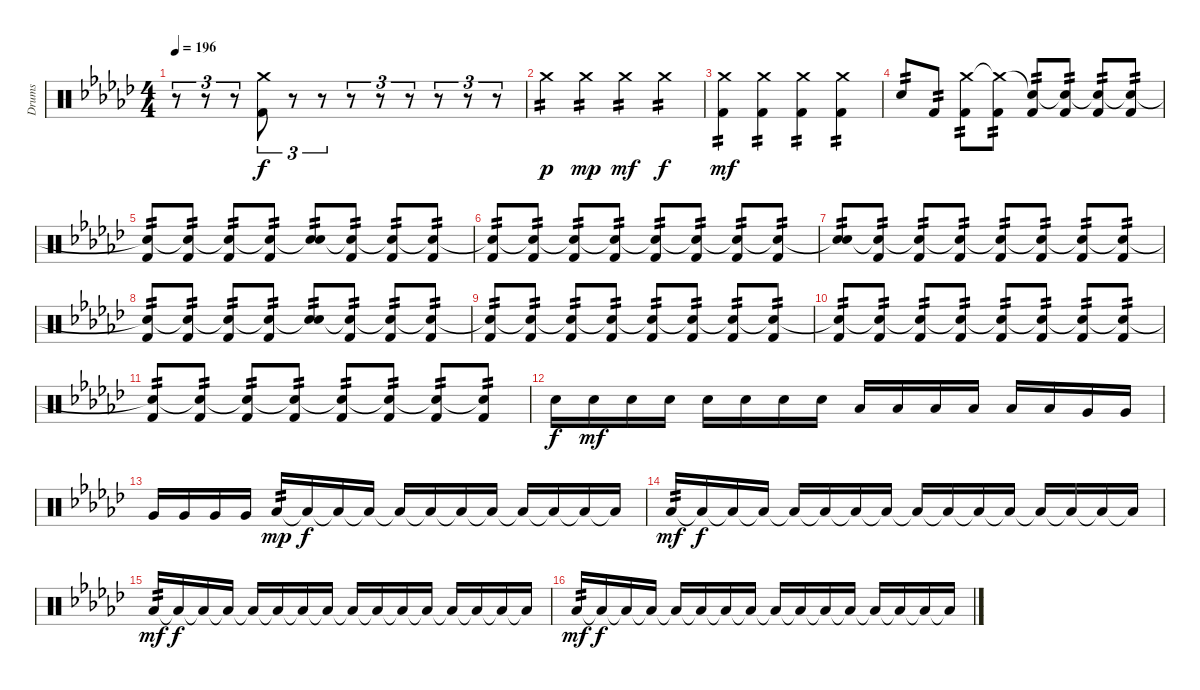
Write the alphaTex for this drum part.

\track ("Drums" "Drums") {instrument percussion}
\staff {score}
\articulation defaults
\ts (4 4)
\tempo 196
\clef neutral
\ks gb
r.8{tu (3 2) dy f} r.8{tu (3 2)} r.8{tu (3 2)} ("Crash medium (hit)" "Kick (hit) 2").8{tu (3 2)} r.8{tu (3 2)} r.8{tu (3 2)} r.8{tu (3 2)} r.8{tu (3 2)} r.8{tu (3 2)} r.8{tu (3 2)} r.8{tu (3 2)} r.8{tu (3 2)} |
"Crash medium (hit)".4{tp 2 dy p} "Crash medium (hit)".4{tp 2 dy mp} "Crash medium (hit)".4{tp 2 dy mf} "Crash medium (hit)".4{tp 2 dy f} |
("Crash medium (hit)" "Kick (hit) 2").4{tp 2 dy mf} ("Crash medium (hit)" "Kick (hit) 2").4{tp 2} ("Crash medium (hit)" "Kick (hit) 2").4{tp 2} ("Crash medium (hit)" "Kick (hit) 2").4{tp 2} |
"Snare (hit) 2".8{tp 2} "Kick (hit) 2".8{tp 2} ("Crash medium (hit)" "Kick (hit) 2").8{tp 2} ("Crash medium (hit)"{t} "Kick (hit) 2").8{tp 2} ("Snare (hit)"{t} "Kick (hit) 2").8{tp 2} ("Snare (hit)"{t} "Kick (hit) 2").8{tp 2} ("Snare (hit)"{t} "Kick (hit) 2").8{tp 2} ("Snare (hit)"{t} "Kick (hit) 2").8{tp 2} |
("Snare (hit)"{t} "Kick (hit) 2").8{tp 2} ("Snare (hit)"{t} "Kick (hit) 2").8{tp 2} ("Snare (hit)"{t} "Kick (hit) 2").8{tp 2} ("Snare (hit)"{t} "Kick (hit) 2").8{tp 2} ("Snare (hit)"{t} "Snare (hit) 2").8{tp 2} ("Snare (hit)"{t} "Kick (hit) 2").8{tp 2} ("Snare (hit)"{t} "Kick (hit) 2").8{tp 2} ("Snare (hit)"{t} "Kick (hit) 2").8{tp 2} |
("Snare (hit)"{t} "Kick (hit) 2").8{tp 2} ("Snare (hit)"{t} "Kick (hit) 2").8{tp 2} ("Snare (hit)"{t} "Kick (hit) 2").8{tp 2} ("Snare (hit)"{t} "Kick (hit) 2").8{tp 2} ("Snare (hit)"{t} "Kick (hit) 2").8{tp 2} ("Snare (hit)"{t} "Kick (hit) 2").8{tp 2} ("Snare (hit)"{t} "Kick (hit) 2").8{tp 2} ("Snare (hit)"{t} "Kick (hit) 2").8{tp 2} |
("Snare (hit)"{t} "Snare (hit) 2").8{tp 2} ("Snare (hit)"{t} "Kick (hit) 2").8{tp 2} ("Snare (hit)"{t} "Kick (hit) 2").8{tp 2} ("Snare (hit)"{t} "Kick (hit) 2").8{tp 2} ("Snare (hit)"{t} "Kick (hit) 2").8{tp 2} ("Snare (hit)"{t} "Kick (hit) 2").8{tp 2} ("Snare (hit)"{t} "Kick (hit) 2").8{tp 2} ("Snare (hit)"{t} "Kick (hit) 2").8{tp 2} |
("Snare (hit)"{t} "Kick (hit) 2").8{tp 2} ("Snare (hit)"{t} "Kick (hit) 2").8{tp 2} ("Snare (hit)"{t} "Kick (hit) 2").8{tp 2} ("Snare (hit)"{t} "Kick (hit) 2").8{tp 2} ("Snare (hit)"{t} "Snare (hit) 2").8{tp 2} ("Snare (hit)"{t} "Kick (hit) 2").8{tp 2} ("Snare (hit)"{t} "Kick (hit) 2").8{tp 2} ("Snare (hit)"{t} "Kick (hit) 2").8{tp 2} |
("Snare (hit)"{t} "Kick (hit) 2").8{tp 2} ("Snare (hit)"{t} "Kick (hit) 2").8{tp 2} ("Snare (hit)"{t} "Kick (hit) 2").8{tp 2} ("Snare (hit)"{t} "Kick (hit) 2").8{tp 2} ("Snare (hit)"{t} "Kick (hit) 2").8{tp 2} ("Snare (hit)"{t} "Kick (hit) 2").8{tp 2} ("Snare (hit)"{t} "Kick (hit) 2").8{tp 2} ("Snare (hit)"{t} "Kick (hit) 2").8{tp 2} |
("Snare (hit)"{t} "Kick (hit) 2").8{tp 2} ("Snare (hit)"{t} "Kick (hit) 2").8{tp 2} ("Snare (hit)"{t} "Kick (hit) 2").8{tp 2} ("Snare (hit)"{t} "Kick (hit) 2").8{tp 2} ("Snare (hit)"{t} "Kick (hit) 2").8{tp 2} ("Snare (hit)"{t} "Kick (hit) 2").8{tp 2} ("Snare (hit)"{t} "Kick (hit) 2").8{tp 2} ("Snare (hit)"{t} "Kick (hit) 2").8{tp 2} |
("Snare (hit)"{t} "Kick (hit) 2").8{tp 2} ("Snare (hit)"{t} "Kick (hit) 2").8{tp 2} ("Snare (hit)"{t} "Kick (hit) 2").8{tp 2} ("Snare (hit)"{t} "Kick (hit) 2").8{tp 2} ("Snare (hit)"{t} "Kick (hit) 2").8{tp 2} ("Snare (hit)"{t} "Kick (hit) 2").8{tp 2} ("Snare (hit)"{t} "Kick (hit) 2").8{tp 2} ("Snare (hit)"{t} "Kick (hit) 2").8{tp 2} |
"Snare (hit) 2".16{dy f} "Snare (hit) 2".16{dy mf} "Snare (hit) 2".16 "Snare (hit) 2".16 "Snare (hit) 2".16 "Snare (hit) 2".16 "Snare (hit) 2".16 "Snare (hit) 2".16 "Low Tom (hit)".16 "Low Tom (hit)".16 "Low Tom (hit)".16 "Low Tom (hit)".16 "Low Tom (hit)".16 "Low Tom (hit)".16 "Very Low Tom (hit)".16 "Very Low Tom (hit)".16 |
"Very Low Tom (hit)".16 "Very Low Tom (hit)".16 "Very Low Tom (hit)".16 "Very Low Tom (hit)".16 "Low Floor Tom (hit)".16{tp 2 dy mp} "Low Floor Tom (hit)"{t}.16{dy f} "Low Floor Tom (hit)"{t}.16 "Low Floor Tom (hit)"{t}.16 "Low Floor Tom (hit)"{t}.16 "Low Floor Tom (hit)"{t}.16 "Low Floor Tom (hit)"{t}.16 "Low Floor Tom (hit)"{t}.16 "Low Floor Tom (hit)"{t}.16 "Low Floor Tom (hit)"{t}.16 "Low Floor Tom (hit)"{t}.16 "Low Floor Tom (hit)"{t}.16 |
"Low Floor Tom (hit)".16{tp 2 dy mf} "Low Floor Tom (hit)"{t}.16{dy f} "Low Floor Tom (hit)"{t}.16 "Low Floor Tom (hit)"{t}.16 "Low Floor Tom (hit)"{t}.16 "Low Floor Tom (hit)"{t}.16 "Low Floor Tom (hit)"{t}.16 "Low Floor Tom (hit)"{t}.16 "Low Floor Tom (hit)"{t}.16 "Low Floor Tom (hit)"{t}.16 "Low Floor Tom (hit)"{t}.16 "Low Floor Tom (hit)"{t}.16 "Low Floor Tom (hit)"{t}.16 "Low Floor Tom (hit)"{t}.16 "Low Floor Tom (hit)"{t}.16 "Low Floor Tom (hit)"{t}.16 |
"Low Floor Tom (hit)".16{tp 2 dy mf} "Low Floor Tom (hit)"{t}.16{dy f} "Low Floor Tom (hit)"{t}.16 "Low Floor Tom (hit)"{t}.16 "Low Floor Tom (hit)"{t}.16 "Low Floor Tom (hit)"{t}.16 "Low Floor Tom (hit)"{t}.16 "Low Floor Tom (hit)"{t}.16 "Low Floor Tom (hit)"{t}.16 "Low Floor Tom (hit)"{t}.16 "Low Floor Tom (hit)"{t}.16 "Low Floor Tom (hit)"{t}.16 "Low Floor Tom (hit)"{t}.16 "Low Floor Tom (hit)"{t}.16 "Low Floor Tom (hit)"{t}.16 "Low Floor Tom (hit)"{t}.16 |
"Low Floor Tom (hit)".16{tp 2 dy mf} "Low Floor Tom (hit)"{t}.16{dy f} "Low Floor Tom (hit)"{t}.16 "Low Floor Tom (hit)"{t}.16 "Low Floor Tom (hit)"{t}.16 "Low Floor Tom (hit)"{t}.16 "Low Floor Tom (hit)"{t}.16 "Low Floor Tom (hit)"{t}.16 "Low Floor Tom (hit)"{t}.16 "Low Floor Tom (hit)"{t}.16 "Low Floor Tom (hit)"{t}.16 "Low Floor Tom (hit)"{t}.16 "Low Floor Tom (hit)"{t}.16 "Low Floor Tom (hit)"{t}.16 "Low Floor Tom (hit)"{t}.16 "Low Floor Tom (hit)"{t}.16
